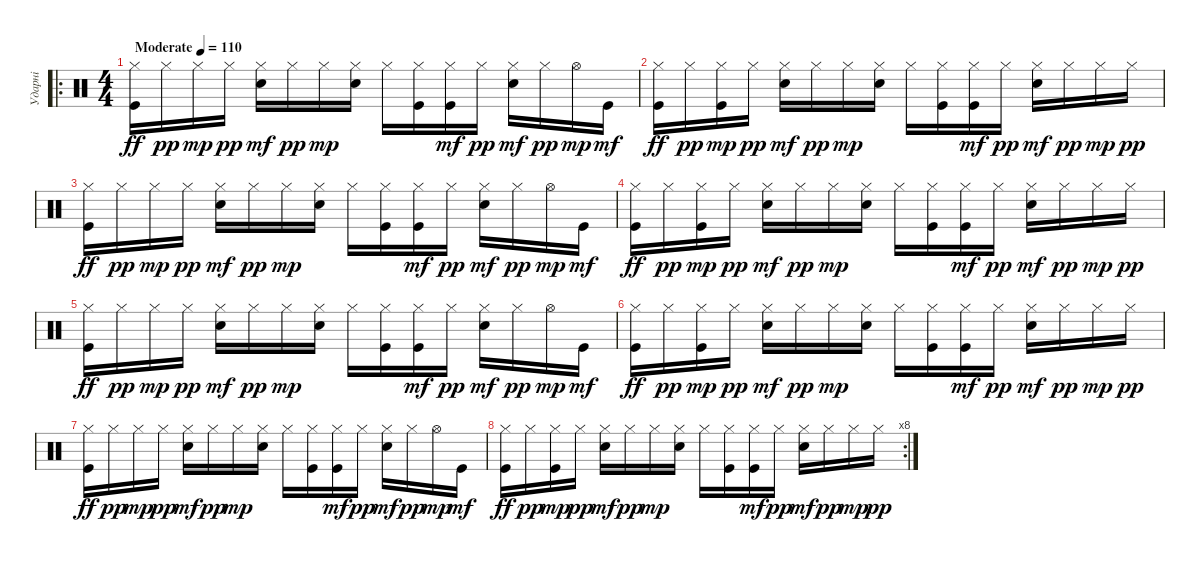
\track ("Ударні" "Ударні") {instrument percussion}
\staff {score}
\articulation defaults
\ro
\ts (4 4)
\tempo (110 "Moderate")
\clef neutral
\ks c
("Hi-Hat (closed)" "Kick (hit)").16{dy ff} "Hi-Hat (closed)".16{dy pp} "Hi-Hat (closed)".16{dy mp} "Hi-Hat (closed)".16{dy pp} ("Hi-Hat (closed)" "Snare (hit) 2").16{dy mf} "Hi-Hat (closed)".16{dy pp} "Hi-Hat (closed)".16{dy mp} ("Hi-Hat (closed)" "Snare (hit) 2").16 "Hi-Hat (closed)".16 ("Hi-Hat (closed)" "Kick (hit)").16 ("Hi-Hat (closed)" "Kick (hit)").16{dy mf} "Hi-Hat (closed)".16{dy pp} ("Hi-Hat (closed)" "Snare (hit) 2").16{dy mf} "Hi-Hat (closed)".16{dy pp} "Hi-Hat (open)".16{dy mp} "Kick (hit)".16{dy mf} |
("Hi-Hat (closed)" "Kick (hit)").16{dy ff} "Hi-Hat (closed)".16{dy pp} ("Hi-Hat (closed)" "Kick (hit)").16{dy mp} "Hi-Hat (closed)".16{dy pp} ("Hi-Hat (closed)" "Snare (hit) 2").16{dy mf} "Hi-Hat (closed)".16{dy pp} "Hi-Hat (closed)".16{dy mp} ("Hi-Hat (closed)" "Snare (hit) 2").16 "Hi-Hat (closed)".16 ("Hi-Hat (closed)" "Kick (hit)").16 ("Hi-Hat (closed)" "Kick (hit)").16{dy mf} "Hi-Hat (closed)".16{dy pp} ("Hi-Hat (closed)" "Snare (hit) 2").16{dy mf} "Hi-Hat (closed)".16{dy pp} "Hi-Hat (closed)".16{dy mp} "Hi-Hat (closed)".16{dy pp} |
("Hi-Hat (closed)" "Kick (hit)").16{dy ff} "Hi-Hat (closed)".16{dy pp} "Hi-Hat (closed)".16{dy mp} "Hi-Hat (closed)".16{dy pp} ("Hi-Hat (closed)" "Snare (hit) 2").16{dy mf} "Hi-Hat (closed)".16{dy pp} "Hi-Hat (closed)".16{dy mp} ("Hi-Hat (closed)" "Snare (hit) 2").16 "Hi-Hat (closed)".16 ("Hi-Hat (closed)" "Kick (hit)").16 ("Hi-Hat (closed)" "Kick (hit)").16{dy mf} "Hi-Hat (closed)".16{dy pp} ("Hi-Hat (closed)" "Snare (hit) 2").16{dy mf} "Hi-Hat (closed)".16{dy pp} "Hi-Hat (open)".16{dy mp} "Kick (hit)".16{dy mf} |
("Hi-Hat (closed)" "Kick (hit)").16{dy ff} "Hi-Hat (closed)".16{dy pp} ("Hi-Hat (closed)" "Kick (hit)").16{dy mp} "Hi-Hat (closed)".16{dy pp} ("Hi-Hat (closed)" "Snare (hit) 2").16{dy mf} "Hi-Hat (closed)".16{dy pp} "Hi-Hat (closed)".16{dy mp} ("Hi-Hat (closed)" "Snare (hit) 2").16 "Hi-Hat (closed)".16 ("Hi-Hat (closed)" "Kick (hit)").16 ("Hi-Hat (closed)" "Kick (hit)").16{dy mf} "Hi-Hat (closed)".16{dy pp} ("Hi-Hat (closed)" "Snare (hit) 2").16{dy mf} "Hi-Hat (closed)".16{dy pp} "Hi-Hat (closed)".16{dy mp} "Hi-Hat (closed)".16{dy pp} |
("Hi-Hat (closed)" "Kick (hit)").16{dy ff} "Hi-Hat (closed)".16{dy pp} "Hi-Hat (closed)".16{dy mp} "Hi-Hat (closed)".16{dy pp} ("Hi-Hat (closed)" "Snare (hit) 2").16{dy mf} "Hi-Hat (closed)".16{dy pp} "Hi-Hat (closed)".16{dy mp} ("Hi-Hat (closed)" "Snare (hit) 2").16 "Hi-Hat (closed)".16 ("Hi-Hat (closed)" "Kick (hit)").16 ("Hi-Hat (closed)" "Kick (hit)").16{dy mf} "Hi-Hat (closed)".16{dy pp} ("Hi-Hat (closed)" "Snare (hit) 2").16{dy mf} "Hi-Hat (closed)".16{dy pp} "Hi-Hat (open)".16{dy mp} "Kick (hit)".16{dy mf} |
("Hi-Hat (closed)" "Kick (hit)").16{dy ff} "Hi-Hat (closed)".16{dy pp} ("Hi-Hat (closed)" "Kick (hit)").16{dy mp} "Hi-Hat (closed)".16{dy pp} ("Hi-Hat (closed)" "Snare (hit) 2").16{dy mf} "Hi-Hat (closed)".16{dy pp} "Hi-Hat (closed)".16{dy mp} ("Hi-Hat (closed)" "Snare (hit) 2").16 "Hi-Hat (closed)".16 ("Hi-Hat (closed)" "Kick (hit)").16 ("Hi-Hat (closed)" "Kick (hit)").16{dy mf} "Hi-Hat (closed)".16{dy pp} ("Hi-Hat (closed)" "Snare (hit) 2").16{dy mf} "Hi-Hat (closed)".16{dy pp} "Hi-Hat (closed)".16{dy mp} "Hi-Hat (closed)".16{dy pp} |
("Hi-Hat (closed)" "Kick (hit)").16{dy ff} "Hi-Hat (closed)".16{dy pp} "Hi-Hat (closed)".16{dy mp} "Hi-Hat (closed)".16{dy pp} ("Hi-Hat (closed)" "Snare (hit) 2").16{dy mf} "Hi-Hat (closed)".16{dy pp} "Hi-Hat (closed)".16{dy mp} ("Hi-Hat (closed)" "Snare (hit) 2").16 "Hi-Hat (closed)".16 ("Hi-Hat (closed)" "Kick (hit)").16 ("Hi-Hat (closed)" "Kick (hit)").16{dy mf} "Hi-Hat (closed)".16{dy pp} ("Hi-Hat (closed)" "Snare (hit) 2").16{dy mf} "Hi-Hat (closed)".16{dy pp} "Hi-Hat (open)".16{dy mp} "Kick (hit)".16{dy mf} |
\rc 8
("Hi-Hat (closed)" "Kick (hit)").16{dy ff} "Hi-Hat (closed)".16{dy pp} ("Hi-Hat (closed)" "Kick (hit)").16{dy mp} "Hi-Hat (closed)".16{dy pp} ("Hi-Hat (closed)" "Snare (hit) 2").16{dy mf} "Hi-Hat (closed)".16{dy pp} "Hi-Hat (closed)".16{dy mp} ("Hi-Hat (closed)" "Snare (hit) 2").16 "Hi-Hat (closed)".16 ("Hi-Hat (closed)" "Kick (hit)").16 ("Hi-Hat (closed)" "Kick (hit)").16{dy mf} "Hi-Hat (closed)".16{dy pp} ("Hi-Hat (closed)" "Snare (hit) 2").16{dy mf} "Hi-Hat (closed)".16{dy pp} "Hi-Hat (closed)".16{dy mp} "Hi-Hat (closed)".16{dy pp}
